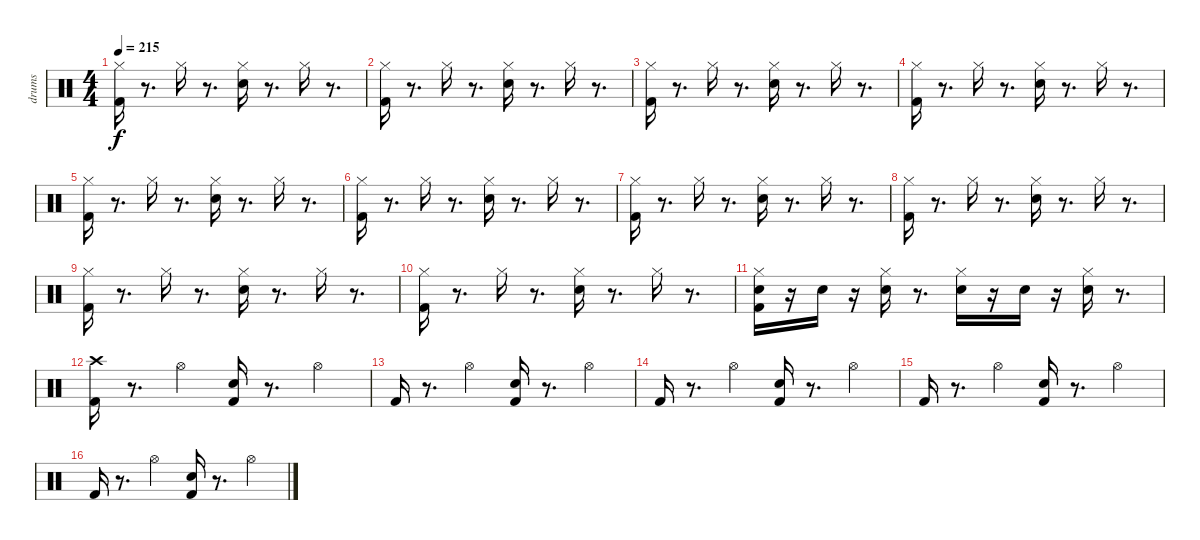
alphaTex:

\track ("drums" "drums") {instrument percussion}
\staff {score}
\articulation defaults
\ts (4 4)
\tempo 215
\clef neutral
\ks c
("Hi-Hat (closed)" "Kick (hit) 2").16{dy f} r.8{d} "Hi-Hat (closed)".16 r.8{d} ("Hi-Hat (closed)" "Electric Snare (hit)").16 r.8{d} "Hi-Hat (closed)".16 r.8{d} |
("Hi-Hat (closed)" "Kick (hit) 2").16 r.8{d} "Hi-Hat (closed)".16 r.8{d} ("Hi-Hat (closed)" "Electric Snare (hit)").16 r.8{d} "Hi-Hat (closed)".16 r.8{d} |
("Hi-Hat (closed)" "Kick (hit) 2").16 r.8{d} "Hi-Hat (closed)".16 r.8{d} ("Hi-Hat (closed)" "Electric Snare (hit)").16 r.8{d} "Hi-Hat (closed)".16 r.8{d} |
("Hi-Hat (closed)" "Kick (hit) 2").16 r.8{d} "Hi-Hat (closed)".16 r.8{d} ("Hi-Hat (closed)" "Electric Snare (hit)").16 r.8{d} "Hi-Hat (closed)".16 r.8{d} |
("Hi-Hat (closed)" "Kick (hit) 2").16 r.8{d} "Hi-Hat (closed)".16 r.8{d} ("Hi-Hat (closed)" "Electric Snare (hit)").16 r.8{d} "Hi-Hat (closed)".16 r.8{d} |
("Hi-Hat (closed)" "Kick (hit) 2").16 r.8{d} "Hi-Hat (closed)".16 r.8{d} ("Hi-Hat (closed)" "Electric Snare (hit)").16 r.8{d} "Hi-Hat (closed)".16 r.8{d} |
("Hi-Hat (closed)" "Kick (hit) 2").16 r.8{d} "Hi-Hat (closed)".16 r.8{d} ("Hi-Hat (closed)" "Electric Snare (hit)").16 r.8{d} "Hi-Hat (closed)".16 r.8{d} |
("Hi-Hat (closed)" "Kick (hit) 2").16 r.8{d} "Hi-Hat (closed)".16 r.8{d} ("Hi-Hat (closed)" "Electric Snare (hit)").16 r.8{d} "Hi-Hat (closed)".16 r.8{d} |
("Hi-Hat (closed)" "Kick (hit) 2").16 r.8{d} "Hi-Hat (closed)".16 r.8{d} ("Hi-Hat (closed)" "Electric Snare (hit)").16 r.8{d} "Hi-Hat (closed)".16 r.8{d} |
("Hi-Hat (closed)" "Kick (hit) 2").16 r.8{d} "Hi-Hat (closed)".16 r.8{d} ("Hi-Hat (closed)" "Electric Snare (hit)").16 r.8{d} "Hi-Hat (closed)".16 r.8{d} |
("Electric Snare (hit)" "Hi-Hat (closed)" "Kick (hit) 2").16 r.16 "Electric Snare (hit)".16 r.16 ("Electric Snare (hit)" "Hi-Hat (closed)").16 r.8{d} ("Hi-Hat (closed)" "Electric Snare (hit)").16 r.16 "Electric Snare (hit)".16 r.16 ("Electric Snare (hit)" "Hi-Hat (closed)").16 r.8{d} |
("Crash high (hit)" "Kick (hit) 2").16 r.8{d} "Hi-Hat (open)".4 ("Electric Snare (hit)" "Kick (hit) 2").16 r.8{d} "Hi-Hat (open)".4 |
"Kick (hit) 2".16 r.8{d} "Hi-Hat (open)".4 ("Electric Snare (hit)" "Kick (hit) 2").16 r.8{d} "Hi-Hat (open)".4 |
"Kick (hit) 2".16 r.8{d} "Hi-Hat (open)".4 ("Electric Snare (hit)" "Kick (hit) 2").16 r.8{d} "Hi-Hat (open)".4 |
"Kick (hit) 2".16 r.8{d} "Hi-Hat (open)".4 ("Electric Snare (hit)" "Kick (hit) 2").16 r.8{d} "Hi-Hat (open)".4 |
"Kick (hit) 2".16 r.8{d} "Hi-Hat (open)".4 ("Electric Snare (hit)" "Kick (hit) 2").16 r.8{d} "Hi-Hat (open)".4
